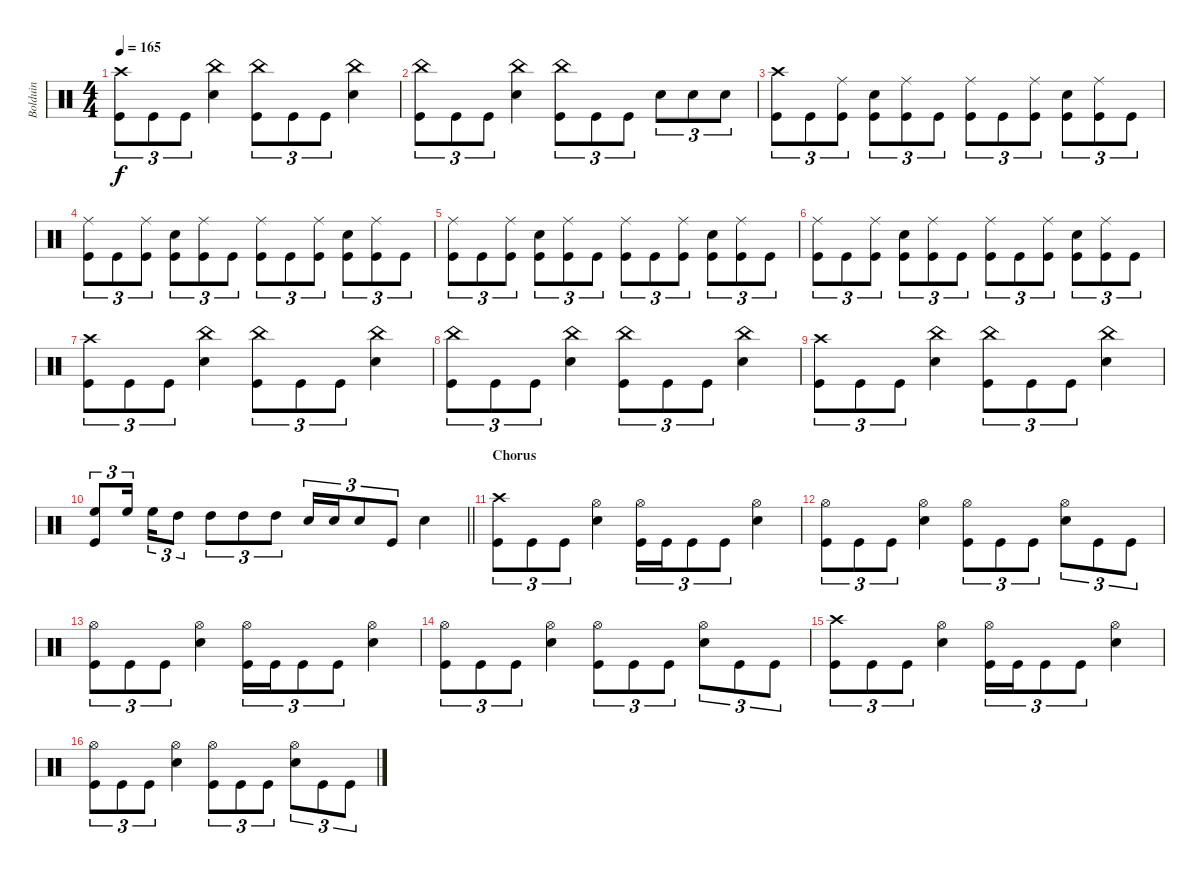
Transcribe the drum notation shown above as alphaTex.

\track ("Bolduin" "Bolduin") {instrument percussion}
\staff {score}
\articulation defaults
\ts (4 4)
\tempo 165
\clef neutral
\ks aminor
("Crash high (hit)" "Kick (hit)").8{tu (3 2) dy f} "Kick (hit)".8{tu (3 2)} "Kick (hit)".8{tu (3 2)} ("China (hit)" "Snare (hit) 2").4 ("Kick (hit)" "China (hit)").8{tu (3 2)} "Kick (hit)".8{tu (3 2)} "Kick (hit)".8{tu (3 2)} ("Snare (hit) 2" "China (hit)").4 |
("China (hit)" "Kick (hit)").8{tu (3 2)} "Kick (hit)".8{tu (3 2)} "Kick (hit)".8{tu (3 2)} ("China (hit)" "Snare (hit) 2").4 ("Kick (hit)" "China (hit)").8{tu (3 2)} "Kick (hit)".8{tu (3 2)} "Kick (hit)".8{tu (3 2)} "Snare (hit) 2".8{tu (3 2)} "Snare (hit) 2".8{tu (3 2)} "Snare (hit) 2".8{tu (3 2)} |
("Crash high (hit)" "Kick (hit)").8{tu (3 2)} "Kick (hit)".8{tu (3 2)} ("Kick (hit)" "Ride (middle)").8{tu (3 2)} ("Kick (hit)" "Snare (hit) 2").8{tu (3 2)} ("Kick (hit)" "Ride (middle)").8{tu (3 2)} "Kick (hit)".8{tu (3 2)} ("Kick (hit)" "Ride (middle)").8{tu (3 2)} "Kick (hit)".8{tu (3 2)} ("Kick (hit)" "Ride (middle)").8{tu (3 2)} ("Kick (hit)" "Snare (hit) 2").8{tu (3 2)} ("Kick (hit)" "Ride (middle)").8{tu (3 2)} "Kick (hit)".8{tu (3 2)} |
("Kick (hit)" "Ride (middle)").8{tu (3 2)} "Kick (hit)".8{tu (3 2)} ("Kick (hit)" "Ride (middle)").8{tu (3 2)} ("Kick (hit)" "Snare (hit) 2").8{tu (3 2)} ("Kick (hit)" "Ride (middle)").8{tu (3 2)} "Kick (hit)".8{tu (3 2)} ("Kick (hit)" "Ride (middle)").8{tu (3 2)} "Kick (hit)".8{tu (3 2)} ("Kick (hit)" "Ride (middle)").8{tu (3 2)} ("Kick (hit)" "Snare (hit) 2").8{tu (3 2)} ("Kick (hit)" "Ride (middle)").8{tu (3 2)} "Kick (hit)".8{tu (3 2)} |
("Kick (hit)" "Ride (middle)").8{tu (3 2)} "Kick (hit)".8{tu (3 2)} ("Kick (hit)" "Ride (middle)").8{tu (3 2)} ("Kick (hit)" "Snare (hit) 2").8{tu (3 2)} ("Kick (hit)" "Ride (middle)").8{tu (3 2)} "Kick (hit)".8{tu (3 2)} ("Kick (hit)" "Ride (middle)").8{tu (3 2)} "Kick (hit)".8{tu (3 2)} ("Kick (hit)" "Ride (middle)").8{tu (3 2)} ("Kick (hit)" "Snare (hit) 2").8{tu (3 2)} ("Kick (hit)" "Ride (middle)").8{tu (3 2)} "Kick (hit)".8{tu (3 2)} |
("Kick (hit)" "Ride (middle)").8{tu (3 2)} "Kick (hit)".8{tu (3 2)} ("Kick (hit)" "Ride (middle)").8{tu (3 2)} ("Kick (hit)" "Snare (hit) 2").8{tu (3 2)} ("Kick (hit)" "Ride (middle)").8{tu (3 2)} "Kick (hit)".8{tu (3 2)} ("Kick (hit)" "Ride (middle)").8{tu (3 2)} "Kick (hit)".8{tu (3 2)} ("Kick (hit)" "Ride (middle)").8{tu (3 2)} ("Kick (hit)" "Snare (hit) 2").8{tu (3 2)} ("Kick (hit)" "Ride (middle)").8{tu (3 2)} "Kick (hit)".8{tu (3 2)} |
("Crash high (hit)" "Kick (hit)").8{tu (3 2)} "Kick (hit)".8{tu (3 2)} "Kick (hit)".8{tu (3 2)} ("China (hit)" "Snare (hit) 2").4 ("Kick (hit)" "China (hit)").8{tu (3 2)} "Kick (hit)".8{tu (3 2)} "Kick (hit)".8{tu (3 2)} ("Snare (hit) 2" "China (hit)").4 |
("China (hit)" "Kick (hit)").8{tu (3 2)} "Kick (hit)".8{tu (3 2)} "Kick (hit)".8{tu (3 2)} ("China (hit)" "Snare (hit) 2").4 ("Kick (hit)" "China (hit)").8{tu (3 2)} "Kick (hit)".8{tu (3 2)} "Kick (hit)".8{tu (3 2)} ("Snare (hit) 2" "China (hit)").4 |
("Crash high (hit)" "Kick (hit)").8{tu (3 2)} "Kick (hit)".8{tu (3 2)} "Kick (hit)".8{tu (3 2)} ("China (hit)" "Snare (hit) 2").4 ("Kick (hit)" "China (hit)").8{tu (3 2)} "Kick (hit)".8{tu (3 2)} "Kick (hit)".8{tu (3 2)} ("Snare (hit) 2" "China (hit)").4 |
\barLineRight lightlight
("High Floor Tom (hit)" "Kick (hit)").8{tu (3 2)} "High Floor Tom (hit)".16{tu (3 2) beam splitsecondary} "High Floor Tom (hit)".16{tu (3 2)} "High Tom (hit)".8{tu (3 2)} "High Tom (hit)".8{tu (3 2)} "High Tom (hit)".8{tu (3 2)} "High Tom (hit)".8{tu (3 2)} "Snare (hit) 2".16{tu (3 2)} "Snare (hit) 2".16{tu (3 2)} "Snare (hit) 2".8{tu (3 2)} "Kick (hit)".8{tu (3 2)} "Snare (hit) 2".4 |
\section ("" "Chorus")
("Crash high (hit)" "Kick (hit)").8{tu (3 2)} "Kick (hit)".8{tu (3 2)} "Kick (hit)".8{tu (3 2)} ("Hi-Hat (open)" "Snare (hit) 2").4 ("Hi-Hat (open)" "Kick (hit)").16{tu (3 2)} "Kick (hit)".16{tu (3 2)} "Kick (hit)".8{tu (3 2)} "Kick (hit)".8{tu (3 2)} ("Hi-Hat (open)" "Snare (hit) 2").4 |
("Hi-Hat (open)" "Kick (hit)").8{tu (3 2)} "Kick (hit)".8{tu (3 2)} "Kick (hit)".8{tu (3 2)} ("Hi-Hat (open)" "Snare (hit) 2").4 ("Hi-Hat (open)" "Kick (hit)").8{tu (3 2)} "Kick (hit)".8{tu (3 2)} "Kick (hit)".8{tu (3 2)} ("Hi-Hat (open)" "Snare (hit) 2").8{tu (3 2)} "Kick (hit)".8{tu (3 2)} "Kick (hit)".8{tu (3 2)} |
("Hi-Hat (open)" "Kick (hit)").8{tu (3 2)} "Kick (hit)".8{tu (3 2)} "Kick (hit)".8{tu (3 2)} ("Hi-Hat (open)" "Snare (hit) 2").4 ("Hi-Hat (open)" "Kick (hit)").16{tu (3 2)} "Kick (hit)".16{tu (3 2)} "Kick (hit)".8{tu (3 2)} "Kick (hit)".8{tu (3 2)} ("Hi-Hat (open)" "Snare (hit) 2").4 |
("Hi-Hat (open)" "Kick (hit)").8{tu (3 2)} "Kick (hit)".8{tu (3 2)} "Kick (hit)".8{tu (3 2)} ("Hi-Hat (open)" "Snare (hit) 2").4 ("Hi-Hat (open)" "Kick (hit)").8{tu (3 2)} "Kick (hit)".8{tu (3 2)} "Kick (hit)".8{tu (3 2)} ("Hi-Hat (open)" "Snare (hit) 2").8{tu (3 2)} "Kick (hit)".8{tu (3 2)} "Kick (hit)".8{tu (3 2)} |
("Crash high (hit)" "Kick (hit)").8{tu (3 2)} "Kick (hit)".8{tu (3 2)} "Kick (hit)".8{tu (3 2)} ("Hi-Hat (open)" "Snare (hit) 2").4 ("Hi-Hat (open)" "Kick (hit)").16{tu (3 2)} "Kick (hit)".16{tu (3 2)} "Kick (hit)".8{tu (3 2)} "Kick (hit)".8{tu (3 2)} ("Hi-Hat (open)" "Snare (hit) 2").4 |
("Hi-Hat (open)" "Kick (hit)").8{tu (3 2)} "Kick (hit)".8{tu (3 2)} "Kick (hit)".8{tu (3 2)} ("Hi-Hat (open)" "Snare (hit) 2").4 ("Hi-Hat (open)" "Kick (hit)").8{tu (3 2)} "Kick (hit)".8{tu (3 2)} "Kick (hit)".8{tu (3 2)} ("Hi-Hat (open)" "Snare (hit) 2").8{tu (3 2)} "Kick (hit)".8{tu (3 2)} "Kick (hit)".8{tu (3 2)}
